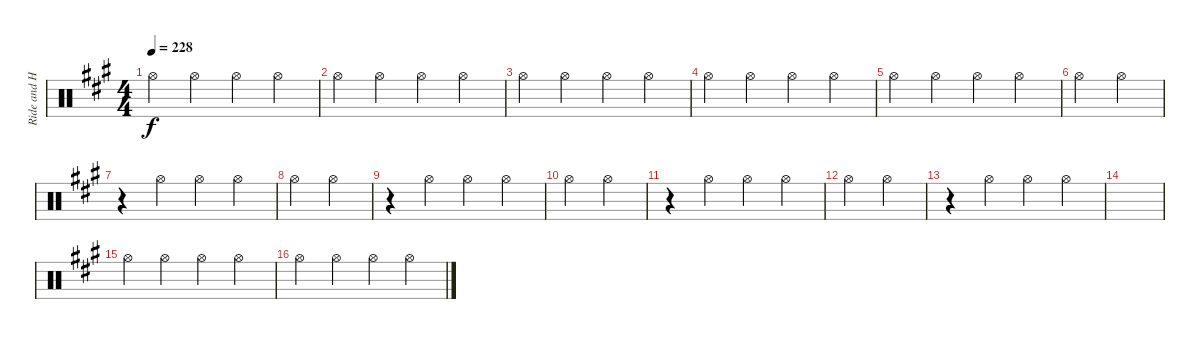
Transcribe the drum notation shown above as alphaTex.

\track ("Ride and Hi Hat" "Ride and H") {instrument percussion}
\staff {score}
\articulation defaults
\ts (4 4)
\tempo 228
\clef neutral
\ks a "Hi-Hat (open)".4{dy f} "Hi-Hat (open)".4 "Hi-Hat (open)".4 "Hi-Hat (open)".4
|
"Hi-Hat (open)".4 "Hi-Hat (open)".4 "Hi-Hat (open)".4 "Hi-Hat (open)".4 |
"Hi-Hat (open)".4 "Hi-Hat (open)".4 "Hi-Hat (open)".4 "Hi-Hat (open)".4 |
"Hi-Hat (open)".4 "Hi-Hat (open)".4 "Hi-Hat (open)".4 "Hi-Hat (open)".4 |
"Hi-Hat (open)".4 "Hi-Hat (open)".4 "Hi-Hat (open)".4 "Hi-Hat (open)".4 |
"Hi-Hat (open)".4 "Hi-Hat (open)".4 |
r.4 "Hi-Hat (open)".4 "Hi-Hat (open)".4 "Hi-Hat (open)".4 |
"Hi-Hat (open)".4 "Hi-Hat (open)".4 |
r.4 "Hi-Hat (open)".4 "Hi-Hat (open)".4 "Hi-Hat (open)".4 |
"Hi-Hat (open)".4 "Hi-Hat (open)".4 |
r.4 "Hi-Hat (open)".4 "Hi-Hat (open)".4 "Hi-Hat (open)".4 |
"Hi-Hat (open)".4 "Hi-Hat (open)".4 |
r.4 "Hi-Hat (open)".4 "Hi-Hat (open)".4 "Hi-Hat (open)".4 |
|
"Hi-Hat (open)".4 "Hi-Hat (open)".4 "Hi-Hat (open)".4 "Hi-Hat (open)".4 |
"Hi-Hat (open)".4 "Hi-Hat (open)".4 "Hi-Hat (open)".4 "Hi-Hat (open)".4
